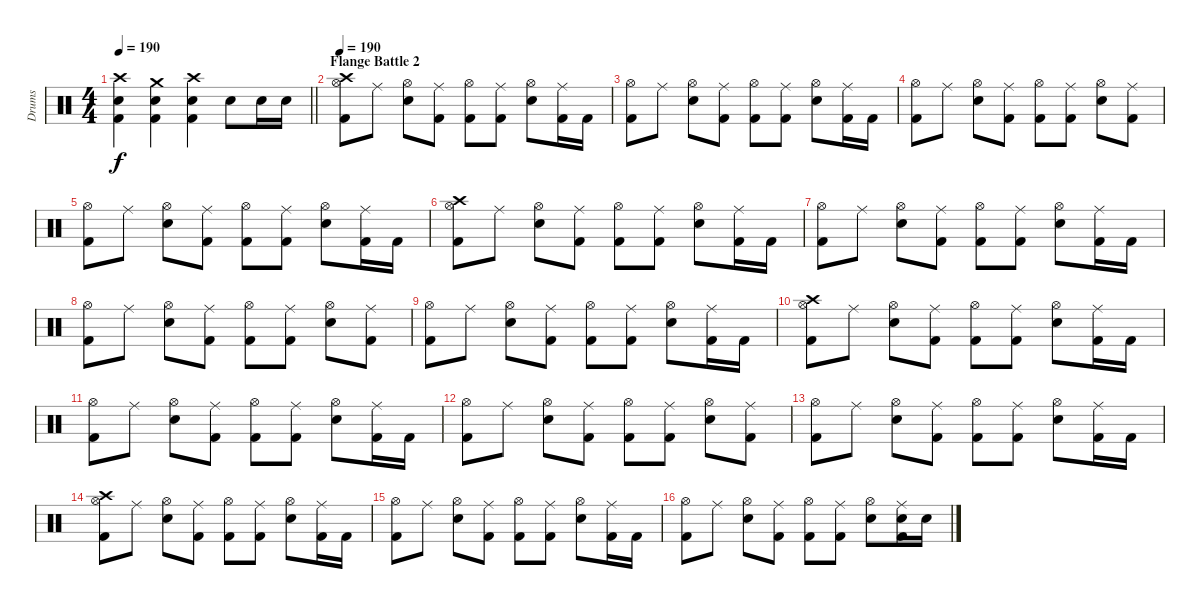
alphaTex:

\track ("Drums" "Drums") {instrument percussion}
\staff {score}
\articulation defaults
\ts (4 4)
\tempo 190
\clef neutral
\barLineRight lightlight
\ks c
("Crash high (hit)" "Snare (hit) 2" "Kick (hit) 2").4{dy f} ("Crash medium (hit)" "Snare (hit) 2" "Kick (hit) 2").4 ("Crash high (hit)" "Snare (hit) 2" "Kick (hit) 2").4 "Snare (hit) 2".8 "Snare (hit) 2".16 "Snare (hit) 2".16 |
\section ("" "Flange Battle 2")
\tempo 190
("Crash high (hit)" "Hi-Hat (open)" "Kick (hit) 2").8 "Ride (middle)".8 ("Hi-Hat (open)" "Snare (hit) 2").8 ("Ride (middle)" "Kick (hit) 2").8 ("Hi-Hat (open)" "Kick (hit) 2").8 ("Ride (middle)" "Kick (hit) 2").8 ("Hi-Hat (open)" "Snare (hit) 2").8 ("Ride (middle)" "Kick (hit) 2").16 "Kick (hit) 2".16 |
("Hi-Hat (open)" "Kick (hit) 2").8 "Ride (middle)".8 ("Hi-Hat (open)" "Snare (hit) 2").8 ("Ride (middle)" "Kick (hit) 2").8 ("Hi-Hat (open)" "Kick (hit) 2").8 ("Ride (middle)" "Kick (hit) 2").8 ("Hi-Hat (open)" "Snare (hit) 2").8 ("Ride (middle)" "Kick (hit) 2").16 "Kick (hit) 2".16 |
("Hi-Hat (open)" "Kick (hit) 2").8 "Ride (middle)".8 ("Hi-Hat (open)" "Snare (hit) 2").8 ("Ride (middle)" "Kick (hit) 2").8 ("Hi-Hat (open)" "Kick (hit) 2").8 ("Ride (middle)" "Kick (hit) 2").8 ("Hi-Hat (open)" "Snare (hit) 2").8 ("Ride (middle)" "Kick (hit) 2").8 |
("Hi-Hat (open)" "Kick (hit) 2").8 "Ride (middle)".8 ("Hi-Hat (open)" "Snare (hit) 2").8 ("Ride (middle)" "Kick (hit) 2").8 ("Hi-Hat (open)" "Kick (hit) 2").8 ("Ride (middle)" "Kick (hit) 2").8 ("Hi-Hat (open)" "Snare (hit) 2").8 ("Ride (middle)" "Kick (hit) 2").16 "Kick (hit) 2".16 |
("Crash high (hit)" "Hi-Hat (open)" "Kick (hit) 2").8 "Ride (middle)".8 ("Hi-Hat (open)" "Snare (hit) 2").8 ("Ride (middle)" "Kick (hit) 2").8 ("Hi-Hat (open)" "Kick (hit) 2").8 ("Ride (middle)" "Kick (hit) 2").8 ("Hi-Hat (open)" "Snare (hit) 2").8 ("Ride (middle)" "Kick (hit) 2").16 "Kick (hit) 2".16 |
("Hi-Hat (open)" "Kick (hit) 2").8 "Ride (middle)".8 ("Hi-Hat (open)" "Snare (hit) 2").8 ("Ride (middle)" "Kick (hit) 2").8 ("Hi-Hat (open)" "Kick (hit) 2").8 ("Ride (middle)" "Kick (hit) 2").8 ("Hi-Hat (open)" "Snare (hit) 2").8 ("Ride (middle)" "Kick (hit) 2").16 "Kick (hit) 2".16 |
("Hi-Hat (open)" "Kick (hit) 2").8 "Ride (middle)".8 ("Hi-Hat (open)" "Snare (hit) 2").8 ("Ride (middle)" "Kick (hit) 2").8 ("Hi-Hat (open)" "Kick (hit) 2").8 ("Ride (middle)" "Kick (hit) 2").8 ("Hi-Hat (open)" "Snare (hit) 2").8 ("Ride (middle)" "Kick (hit) 2").8 |
("Hi-Hat (open)" "Kick (hit) 2").8 "Ride (middle)".8 ("Hi-Hat (open)" "Snare (hit) 2").8 ("Ride (middle)" "Kick (hit) 2").8 ("Hi-Hat (open)" "Kick (hit) 2").8 ("Ride (middle)" "Kick (hit) 2").8 ("Hi-Hat (open)" "Snare (hit) 2").8 ("Ride (middle)" "Kick (hit) 2").16 "Kick (hit) 2".16 |
("Crash high (hit)" "Hi-Hat (open)" "Kick (hit) 2").8 "Ride (middle)".8 ("Hi-Hat (open)" "Snare (hit) 2").8 ("Ride (middle)" "Kick (hit) 2").8 ("Hi-Hat (open)" "Kick (hit) 2").8 ("Ride (middle)" "Kick (hit) 2").8 ("Hi-Hat (open)" "Snare (hit) 2").8 ("Ride (middle)" "Kick (hit) 2").16 "Kick (hit) 2".16 |
("Hi-Hat (open)" "Kick (hit) 2").8 "Ride (middle)".8 ("Hi-Hat (open)" "Snare (hit) 2").8 ("Ride (middle)" "Kick (hit) 2").8 ("Hi-Hat (open)" "Kick (hit) 2").8 ("Ride (middle)" "Kick (hit) 2").8 ("Hi-Hat (open)" "Snare (hit) 2").8 ("Ride (middle)" "Kick (hit) 2").16 "Kick (hit) 2".16 |
("Hi-Hat (open)" "Kick (hit) 2").8 "Ride (middle)".8 ("Hi-Hat (open)" "Snare (hit) 2").8 ("Ride (middle)" "Kick (hit) 2").8 ("Hi-Hat (open)" "Kick (hit) 2").8 ("Ride (middle)" "Kick (hit) 2").8 ("Hi-Hat (open)" "Snare (hit) 2").8 ("Ride (middle)" "Kick (hit) 2").8 |
("Hi-Hat (open)" "Kick (hit) 2").8 "Ride (middle)".8 ("Hi-Hat (open)" "Snare (hit) 2").8 ("Ride (middle)" "Kick (hit) 2").8 ("Hi-Hat (open)" "Kick (hit) 2").8 ("Ride (middle)" "Kick (hit) 2").8 ("Hi-Hat (open)" "Snare (hit) 2").8 ("Ride (middle)" "Kick (hit) 2").16 "Kick (hit) 2".16 |
("Crash high (hit)" "Hi-Hat (open)" "Kick (hit) 2").8 "Ride (middle)".8 ("Hi-Hat (open)" "Snare (hit) 2").8 ("Ride (middle)" "Kick (hit) 2").8 ("Hi-Hat (open)" "Kick (hit) 2").8 ("Ride (middle)" "Kick (hit) 2").8 ("Hi-Hat (open)" "Snare (hit) 2").8 ("Ride (middle)" "Kick (hit) 2").16 "Kick (hit) 2".16 |
("Hi-Hat (open)" "Kick (hit) 2").8 "Ride (middle)".8 ("Hi-Hat (open)" "Snare (hit) 2").8 ("Ride (middle)" "Kick (hit) 2").8 ("Hi-Hat (open)" "Kick (hit) 2").8 ("Ride (middle)" "Kick (hit) 2").8 ("Hi-Hat (open)" "Snare (hit) 2").8 ("Ride (middle)" "Kick (hit) 2").16 "Kick (hit) 2".16 |
("Hi-Hat (open)" "Kick (hit) 2").8 "Ride (middle)".8 ("Hi-Hat (open)" "Snare (hit) 2").8 ("Ride (middle)" "Kick (hit) 2").8 ("Hi-Hat (open)" "Kick (hit) 2").8 ("Ride (middle)" "Kick (hit) 2").8 ("Hi-Hat (open)" "Snare (hit) 2").8 ("Ride (middle)" "Snare (hit) 2" "Kick (hit) 2").16 "Snare (hit) 2".16
